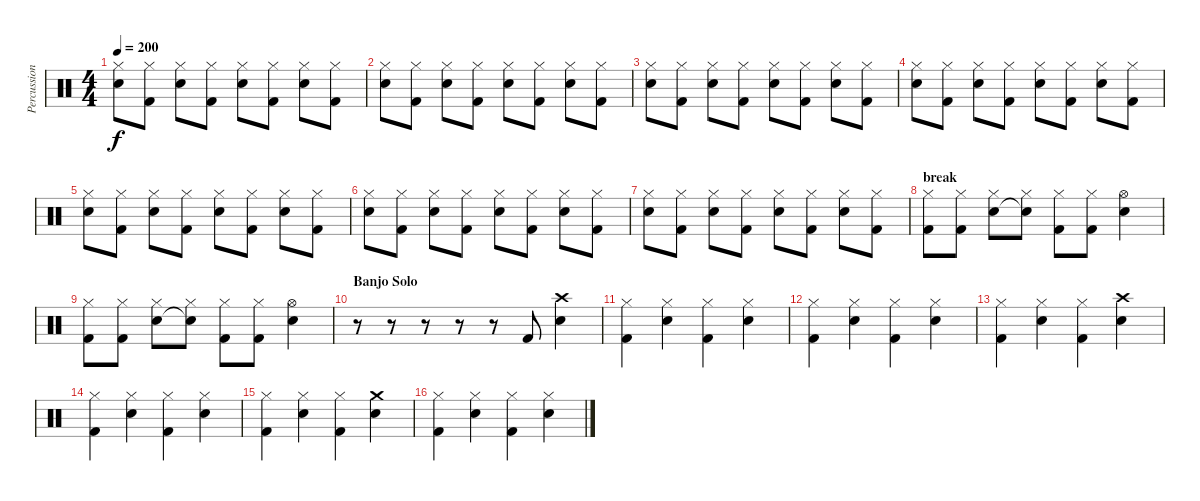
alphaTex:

\track ("Percussion" "Percussion") {instrument percussion}
\staff {score}
\articulation defaults
\ts (4 4)
\tempo 200
\clef neutral
\ks c
("Hi-Hat (closed)" "Electric Snare (hit)").8{dy f} ("Hi-Hat (closed)" "Kick (hit) 2").8 ("Hi-Hat (closed)" "Electric Snare (hit)").8 ("Hi-Hat (closed)" "Kick (hit) 2").8 ("Hi-Hat (closed)" "Electric Snare (hit)").8 ("Hi-Hat (closed)" "Kick (hit) 2").8 ("Hi-Hat (closed)" "Electric Snare (hit)").8 ("Hi-Hat (closed)" "Kick (hit) 2").8 |
("Hi-Hat (closed)" "Electric Snare (hit)").8 ("Hi-Hat (closed)" "Kick (hit) 2").8 ("Hi-Hat (closed)" "Electric Snare (hit)").8 ("Hi-Hat (closed)" "Kick (hit) 2").8 ("Hi-Hat (closed)" "Electric Snare (hit)").8 ("Hi-Hat (closed)" "Kick (hit) 2").8 ("Hi-Hat (closed)" "Electric Snare (hit)").8 ("Hi-Hat (closed)" "Kick (hit) 2").8 |
("Hi-Hat (closed)" "Electric Snare (hit)").8 ("Hi-Hat (closed)" "Kick (hit) 2").8 ("Hi-Hat (closed)" "Electric Snare (hit)").8 ("Hi-Hat (closed)" "Kick (hit) 2").8 ("Hi-Hat (closed)" "Electric Snare (hit)").8 ("Hi-Hat (closed)" "Kick (hit) 2").8 ("Hi-Hat (closed)" "Electric Snare (hit)").8 ("Hi-Hat (closed)" "Kick (hit) 2").8 |
("Hi-Hat (closed)" "Electric Snare (hit)").8 ("Hi-Hat (closed)" "Kick (hit) 2").8 ("Hi-Hat (closed)" "Electric Snare (hit)").8 ("Hi-Hat (closed)" "Kick (hit) 2").8 ("Hi-Hat (closed)" "Electric Snare (hit)").8 ("Hi-Hat (closed)" "Kick (hit) 2").8 ("Hi-Hat (closed)" "Electric Snare (hit)").8 ("Hi-Hat (closed)" "Kick (hit) 2").8 |
("Hi-Hat (closed)" "Electric Snare (hit)").8 ("Hi-Hat (closed)" "Kick (hit) 2").8 ("Hi-Hat (closed)" "Electric Snare (hit)").8 ("Hi-Hat (closed)" "Kick (hit) 2").8 ("Hi-Hat (closed)" "Electric Snare (hit)").8 ("Hi-Hat (closed)" "Kick (hit) 2").8 ("Hi-Hat (closed)" "Electric Snare (hit)").8 ("Hi-Hat (closed)" "Kick (hit) 2").8 |
("Hi-Hat (closed)" "Electric Snare (hit)").8 ("Hi-Hat (closed)" "Kick (hit) 2").8 ("Hi-Hat (closed)" "Electric Snare (hit)").8 ("Hi-Hat (closed)" "Kick (hit) 2").8 ("Hi-Hat (closed)" "Electric Snare (hit)").8 ("Hi-Hat (closed)" "Kick (hit) 2").8 ("Hi-Hat (closed)" "Electric Snare (hit)").8 ("Hi-Hat (closed)" "Kick (hit) 2").8 |
("Hi-Hat (closed)" "Electric Snare (hit)").8 ("Hi-Hat (closed)" "Kick (hit) 2").8 ("Hi-Hat (closed)" "Electric Snare (hit)").8 ("Hi-Hat (closed)" "Kick (hit) 2").8 ("Hi-Hat (closed)" "Electric Snare (hit)").8 ("Hi-Hat (closed)" "Kick (hit) 2").8 ("Hi-Hat (closed)" "Electric Snare (hit)").8 ("Hi-Hat (closed)" "Kick (hit) 2").8 |
\section ("" "break")
("Hi-Hat (closed)" "Kick (hit) 2").8 ("Hi-Hat (closed)" "Kick (hit) 2").8 ("Hi-Hat (closed)" "Electric Snare (hit)").8 ("Hi-Hat (closed)" "Snare (hit)"{t}).8 ("Hi-Hat (closed)" "Kick (hit) 2").8 ("Hi-Hat (closed)" "Kick (hit) 2").8 ("Hi-Hat (open)" "Electric Snare (hit)").4 |
("Hi-Hat (closed)" "Kick (hit) 2").8 ("Hi-Hat (closed)" "Kick (hit) 2").8 ("Hi-Hat (closed)" "Electric Snare (hit)").8 ("Hi-Hat (closed)" "Snare (hit)"{t}).8 ("Hi-Hat (closed)" "Kick (hit) 2").8 ("Hi-Hat (closed)" "Kick (hit) 2").8 ("Hi-Hat (open)" "Electric Snare (hit)").4 |
\section ("" "Banjo Solo")
r.8 r.8 r.8 r.8 r.8 "Kick (hit) 2".8 ("Crash high (hit)" "Electric Snare (hit)").4 |
("Hi-Hat (closed)" "Kick (hit) 2").4 ("Hi-Hat (closed)" "Electric Snare (hit)").4 ("Hi-Hat (closed)" "Kick (hit) 2").4 ("Hi-Hat (closed)" "Electric Snare (hit)").4 |
("Hi-Hat (closed)" "Kick (hit) 2").4 ("Hi-Hat (closed)" "Electric Snare (hit)").4 ("Hi-Hat (closed)" "Kick (hit) 2").4 ("Hi-Hat (closed)" "Electric Snare (hit)").4 |
("Hi-Hat (closed)" "Kick (hit) 2").4 ("Hi-Hat (closed)" "Electric Snare (hit)").4 ("Hi-Hat (closed)" "Kick (hit) 2").4 ("Crash high (hit)" "Electric Snare (hit)").4 |
("Hi-Hat (closed)" "Kick (hit) 2").4 ("Hi-Hat (closed)" "Electric Snare (hit)").4 ("Hi-Hat (closed)" "Kick (hit) 2").4 ("Hi-Hat (closed)" "Electric Snare (hit)").4 |
("Hi-Hat (closed)" "Kick (hit) 2").4 ("Hi-Hat (closed)" "Electric Snare (hit)").4 ("Hi-Hat (closed)" "Kick (hit) 2").4 ("Crash medium (hit)" "Electric Snare (hit)").4 |
("Hi-Hat (closed)" "Kick (hit) 2").4 ("Hi-Hat (closed)" "Electric Snare (hit)").4 ("Hi-Hat (closed)" "Kick (hit) 2").4 ("Hi-Hat (closed)" "Electric Snare (hit)").4
